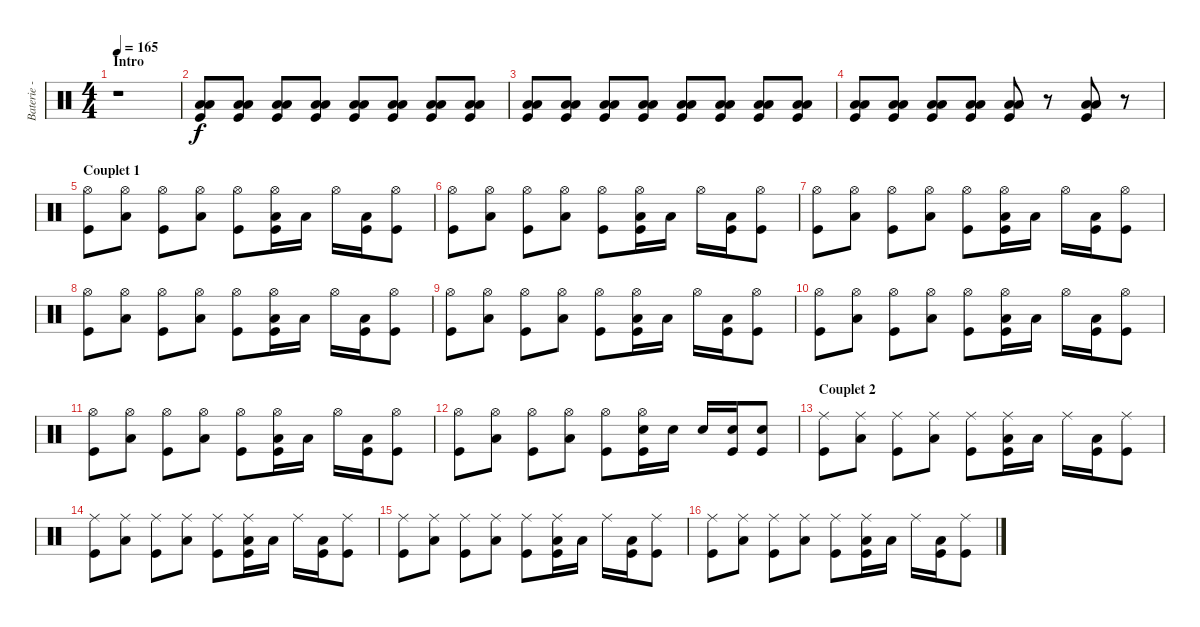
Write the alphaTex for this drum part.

\track ("Baterie - Alex" "Baterie - ") {instrument percussion}
\staff {score}
\articulation defaults
\ts (4 4)
\section ("" "Intro")
\tempo 165
\clef neutral
\ks c
r.1{dy f volume 10} |
("Low Floor Tom (hit)" "Low Tom (hit)" "Kick (hit)").8{volume 13} ("Low Floor Tom (hit)" "Low Tom (hit)" "Kick (hit)").8 ("Low Floor Tom (hit)" "Low Tom (hit)" "Kick (hit)").8 ("Low Floor Tom (hit)" "Low Tom (hit)" "Kick (hit)").8 ("Low Floor Tom (hit)" "Low Tom (hit)" "Kick (hit)").8 ("Low Floor Tom (hit)" "Low Tom (hit)" "Kick (hit)").8 ("Low Floor Tom (hit)" "Low Tom (hit)" "Kick (hit)").8 ("Low Floor Tom (hit)" "Low Tom (hit)" "Kick (hit)").8 |
("Low Floor Tom (hit)" "Low Tom (hit)" "Kick (hit)").8 ("Low Floor Tom (hit)" "Low Tom (hit)" "Kick (hit)").8 ("Low Floor Tom (hit)" "Low Tom (hit)" "Kick (hit)").8 ("Low Floor Tom (hit)" "Low Tom (hit)" "Kick (hit)").8 ("Low Floor Tom (hit)" "Low Tom (hit)" "Kick (hit)").8 ("Low Floor Tom (hit)" "Low Tom (hit)" "Kick (hit)").8 ("Low Floor Tom (hit)" "Low Tom (hit)" "Kick (hit)").8 ("Low Floor Tom (hit)" "Low Tom (hit)" "Kick (hit)").8 |
("Low Floor Tom (hit)" "Low Tom (hit)" "Kick (hit)").8 ("Low Floor Tom (hit)" "Low Tom (hit)" "Kick (hit)").8 ("Low Floor Tom (hit)" "Low Tom (hit)" "Kick (hit)").8 ("Low Floor Tom (hit)" "Low Tom (hit)" "Kick (hit)").8 ("Low Floor Tom (hit)" "Low Tom (hit)" "Kick (hit)").8 r.8 ("Low Floor Tom (hit)" "Low Tom (hit)" "Kick (hit)").8 r.8 |
\section ("" "Couplet 1 ")
("Hi-Hat (open)" "Kick (hit)").8 ("Hi-Hat (open)" "Low Tom (hit)").8 ("Hi-Hat (open)" "Kick (hit)").8 ("Hi-Hat (open)" "Low Tom (hit)").8 ("Hi-Hat (open)" "Kick (hit)").8 ("Hi-Hat (open)" "Low Tom (hit)" "Kick (hit)").16 "Low Tom (hit)".16 "Hi-Hat (open)".16 ("Low Tom (hit)" "Kick (hit)").16 ("Hi-Hat (open)" "Kick (hit)").8 |
("Hi-Hat (open)" "Kick (hit)").8 ("Hi-Hat (open)" "Low Tom (hit)").8 ("Hi-Hat (open)" "Kick (hit)").8 ("Hi-Hat (open)" "Low Tom (hit)").8 ("Hi-Hat (open)" "Kick (hit)").8 ("Hi-Hat (open)" "Low Tom (hit)" "Kick (hit)").16 "Low Tom (hit)".16 "Hi-Hat (open)".16 ("Low Tom (hit)" "Kick (hit)").16 ("Hi-Hat (open)" "Kick (hit)").8 |
("Hi-Hat (open)" "Kick (hit)").8 ("Hi-Hat (open)" "Low Tom (hit)").8 ("Hi-Hat (open)" "Kick (hit)").8 ("Hi-Hat (open)" "Low Tom (hit)").8 ("Hi-Hat (open)" "Kick (hit)").8 ("Hi-Hat (open)" "Low Tom (hit)" "Kick (hit)").16 "Low Tom (hit)".16 "Hi-Hat (open)".16 ("Low Tom (hit)" "Kick (hit)").16 ("Hi-Hat (open)" "Kick (hit)").8 |
("Hi-Hat (open)" "Kick (hit)").8 ("Hi-Hat (open)" "Low Tom (hit)").8 ("Hi-Hat (open)" "Kick (hit)").8 ("Hi-Hat (open)" "Low Tom (hit)").8 ("Hi-Hat (open)" "Kick (hit)").8 ("Hi-Hat (open)" "Low Tom (hit)" "Kick (hit)").16 "Low Tom (hit)".16 "Hi-Hat (open)".16 ("Low Tom (hit)" "Kick (hit)").16 ("Hi-Hat (open)" "Kick (hit)").8 |
("Hi-Hat (open)" "Kick (hit)").8 ("Hi-Hat (open)" "Low Tom (hit)").8 ("Hi-Hat (open)" "Kick (hit)").8 ("Hi-Hat (open)" "Low Tom (hit)").8 ("Hi-Hat (open)" "Kick (hit)").8 ("Hi-Hat (open)" "Low Tom (hit)" "Kick (hit)").16 "Low Tom (hit)".16 "Hi-Hat (open)".16 ("Low Tom (hit)" "Kick (hit)").16 ("Hi-Hat (open)" "Kick (hit)").8 |
("Hi-Hat (open)" "Kick (hit)").8 ("Hi-Hat (open)" "Low Tom (hit)").8 ("Hi-Hat (open)" "Kick (hit)").8 ("Hi-Hat (open)" "Low Tom (hit)").8 ("Hi-Hat (open)" "Kick (hit)").8 ("Hi-Hat (open)" "Low Tom (hit)" "Kick (hit)").16 "Low Tom (hit)".16 "Hi-Hat (open)".16 ("Low Tom (hit)" "Kick (hit)").16 ("Hi-Hat (open)" "Kick (hit)").8 |
("Hi-Hat (open)" "Kick (hit)").8 ("Hi-Hat (open)" "Low Tom (hit)").8 ("Hi-Hat (open)" "Kick (hit)").8 ("Hi-Hat (open)" "Low Tom (hit)").8 ("Hi-Hat (open)" "Kick (hit)").8 ("Hi-Hat (open)" "Low Tom (hit)" "Kick (hit)").16 "Low Tom (hit)".16 "Hi-Hat (open)".16 ("Low Tom (hit)" "Kick (hit)").16 ("Hi-Hat (open)" "Kick (hit)").8 |
("Hi-Hat (open)" "Kick (hit)").8 ("Hi-Hat (open)" "Low Tom (hit)").8 ("Hi-Hat (open)" "Kick (hit)").8 ("Hi-Hat (open)" "Low Tom (hit)").8 ("Hi-Hat (open)" "Kick (hit)").8 ("Hi-Hat (open)" "Electric Snare (hit)" "Kick (hit)").16 "Electric Snare (hit)".16 "Electric Snare (hit)".16 ("Electric Snare (hit)" "Kick (hit)").16 ("Electric Snare (hit)" "Kick (hit)").8 |
\section ("" "Couplet 2")
("Ride (middle)" "Kick (hit)").8 ("Ride (middle)" "Low Tom (hit)").8 ("Ride (middle)" "Kick (hit)").8 ("Ride (middle)" "Low Tom (hit)").8 ("Ride (middle)" "Kick (hit)").8 ("Ride (middle)" "Low Tom (hit)" "Kick (hit)").16 "Low Tom (hit)".16 "Ride (middle)".16 ("Low Tom (hit)" "Kick (hit)").16 ("Ride (middle)" "Kick (hit)").8 |
("Ride (middle)" "Kick (hit)").8 ("Ride (middle)" "Low Tom (hit)").8 ("Ride (middle)" "Kick (hit)").8 ("Ride (middle)" "Low Tom (hit)").8 ("Ride (middle)" "Kick (hit)").8 ("Ride (middle)" "Low Tom (hit)" "Kick (hit)").16 "Low Tom (hit)".16 "Ride (middle)".16 ("Low Tom (hit)" "Kick (hit)").16 ("Ride (middle)" "Kick (hit)").8 |
("Ride (middle)" "Kick (hit)").8 ("Ride (middle)" "Low Tom (hit)").8 ("Ride (middle)" "Kick (hit)").8 ("Ride (middle)" "Low Tom (hit)").8 ("Ride (middle)" "Kick (hit)").8 ("Ride (middle)" "Low Tom (hit)" "Kick (hit)").16 "Low Tom (hit)".16 "Ride (middle)".16 ("Low Tom (hit)" "Kick (hit)").16 ("Ride (middle)" "Kick (hit)").8 |
("Ride (middle)" "Kick (hit)").8 ("Ride (middle)" "Low Tom (hit)").8 ("Ride (middle)" "Kick (hit)").8 ("Ride (middle)" "Low Tom (hit)").8 ("Ride (middle)" "Kick (hit)").8 ("Ride (middle)" "Low Tom (hit)" "Kick (hit)").16 "Low Tom (hit)".16 "Ride (middle)".16 ("Low Tom (hit)" "Kick (hit)").16 ("Ride (middle)" "Kick (hit)").8
